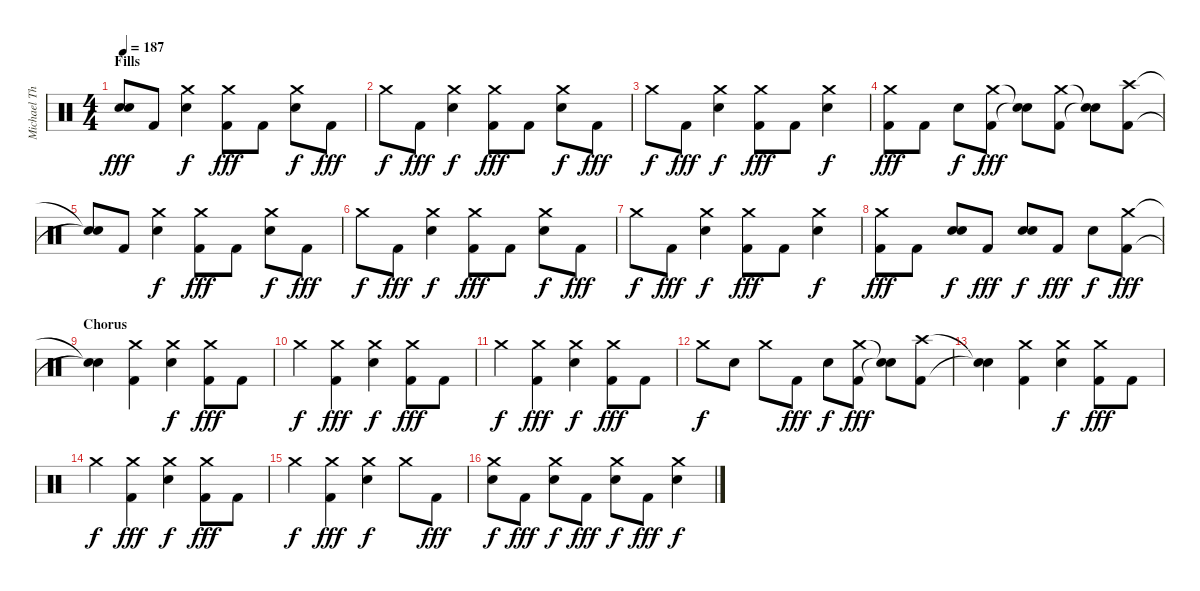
\track ("Michael Thomas" "Michael Th") {instrument percussion}
\staff {score}
\articulation defaults
\ts (4 4)
\section ("" "Fills")
\tempo 187
\clef neutral
\ks c
("Snare (hit)"{t} "Snare (hit)"{t}).8{dy fff} "Kick (hit) 2".8 ("Crash medium (hit)" "Electric Snare (hit)").4{dy f} ("Crash medium (hit)" "Kick (hit) 2").8{dy fff} "Kick (hit) 2".8 ("Crash medium (hit)" "Electric Snare (hit)").8{dy f} "Kick (hit) 2".8{dy fff} |
"Crash medium (hit)".8{dy f} "Kick (hit) 2".8{dy fff} ("Crash medium (hit)" "Electric Snare (hit)").4{dy f} ("Crash medium (hit)" "Kick (hit) 2").8{dy fff} "Kick (hit) 2".8 ("Crash medium (hit)" "Electric Snare (hit)").8{dy f} "Kick (hit) 2".8{dy fff} |
"Crash medium (hit)".8{dy f} "Kick (hit) 2".8{dy fff} ("Crash medium (hit)" "Electric Snare (hit)").4{dy f} ("Crash medium (hit)" "Kick (hit) 2").8{dy fff} "Kick (hit) 2".8 ("Crash medium (hit)" "Electric Snare (hit)").4{dy f} |
("Crash medium (hit)" "Kick (hit) 2").8{dy fff} "Kick (hit) 2".8 "Electric Snare (hit)".8{dy f} ("Crash medium (hit)" "Kick (hit) 2").8{dy fff} ("Snare (hit)"{t} "Snare (hit)"{t}).8 ("Crash medium (hit)" "Kick (hit) 2").8 ("Snare (hit)"{t} "Snare (hit)"{t}).8 ("Crash high (hit)" "Kick (hit) 2").8 |
("Snare (hit)"{t} "Snare (hit)"{t}).8 "Kick (hit) 2".8 ("Crash medium (hit)" "Electric Snare (hit)").4{dy f} ("Crash medium (hit)" "Kick (hit) 2").8{dy fff} "Kick (hit) 2".8 ("Crash medium (hit)" "Electric Snare (hit)").8{dy f} "Kick (hit) 2".8{dy fff} |
"Crash medium (hit)".8{dy f} "Kick (hit) 2".8{dy fff} ("Crash medium (hit)" "Electric Snare (hit)").4{dy f} ("Crash medium (hit)" "Kick (hit) 2").8{dy fff} "Kick (hit) 2".8 ("Crash medium (hit)" "Electric Snare (hit)").8{dy f} "Kick (hit) 2".8{dy fff} |
"Crash medium (hit)".8{dy f} "Kick (hit) 2".8{dy fff} ("Crash medium (hit)" "Electric Snare (hit)").4{dy f} ("Crash medium (hit)" "Kick (hit) 2").8{dy fff} "Kick (hit) 2".8 ("Crash medium (hit)" "Electric Snare (hit)").4{dy f} |
("Crash medium (hit)" "Kick (hit) 2").8{dy fff} "Kick (hit) 2".8 ("Electric Snare (hit)" "Electric Snare (hit)").8{bd 120 dy f} "Kick (hit) 2".8{dy fff} ("Electric Snare (hit)" "Electric Snare (hit)").8{bd 120 dy f} "Kick (hit) 2".8{dy fff} "Electric Snare (hit)".8{dy f} ("Crash medium (hit)" "Kick (hit) 2").8{dy fff} |
\section ("" "Chorus")
("Snare (hit)"{t} "Snare (hit)"{t}).4 ("Crash medium (hit)" "Kick (hit) 2").4 ("Crash medium (hit)" "Electric Snare (hit)").4{dy f} ("Crash medium (hit)" "Kick (hit) 2").8{dy fff} "Kick (hit) 2".8 |
"Crash medium (hit)".4{dy f} ("Crash medium (hit)" "Kick (hit) 2").4{dy fff} ("Crash medium (hit)" "Electric Snare (hit)").4{dy f} ("Crash medium (hit)" "Kick (hit) 2").8{dy fff} "Kick (hit) 2".8 |
"Crash medium (hit)".4{dy f} ("Crash medium (hit)" "Kick (hit) 2").4{dy fff} ("Crash medium (hit)" "Electric Snare (hit)").4{dy f} ("Crash medium (hit)" "Kick (hit) 2").8{dy fff} "Kick (hit) 2".8 |
"Crash medium (hit)".8{dy f} "Electric Snare (hit)".8 "Crash medium (hit)".8 "Kick (hit) 2".8{dy fff} "Electric Snare (hit)".8{dy f} ("Crash medium (hit)" "Kick (hit) 2").8{dy fff} ("Snare (hit)"{t} "Snare (hit)"{t}).8 ("Crash high (hit)" "Kick (hit) 2").8 |
("Snare (hit)"{t} "Snare (hit)"{t}).4 ("Crash medium (hit)" "Kick (hit) 2").4 ("Crash medium (hit)" "Electric Snare (hit)").4{dy f} ("Crash medium (hit)" "Kick (hit) 2").8{dy fff} "Kick (hit) 2".8 |
"Crash medium (hit)".4{dy f} ("Crash medium (hit)" "Kick (hit) 2").4{dy fff} ("Crash medium (hit)" "Electric Snare (hit)").4{dy f} ("Crash medium (hit)" "Kick (hit) 2").8{dy fff} "Kick (hit) 2".8 |
"Crash medium (hit)".4{dy f} ("Crash medium (hit)" "Kick (hit) 2").4{dy fff} ("Crash medium (hit)" "Electric Snare (hit)").4{dy f} "Crash medium (hit)".8 "Kick (hit) 2".8{dy fff} |
("Crash medium (hit)" "Electric Snare (hit)").8{dy f} "Kick (hit) 2".8{dy fff} ("Crash medium (hit)" "Electric Snare (hit)").8{dy f} "Kick (hit) 2".8{dy fff} ("Crash medium (hit)" "Electric Snare (hit)").8{dy f} "Kick (hit) 2".8{dy fff} ("Crash medium (hit)" "Electric Snare (hit)").4{dy f}
